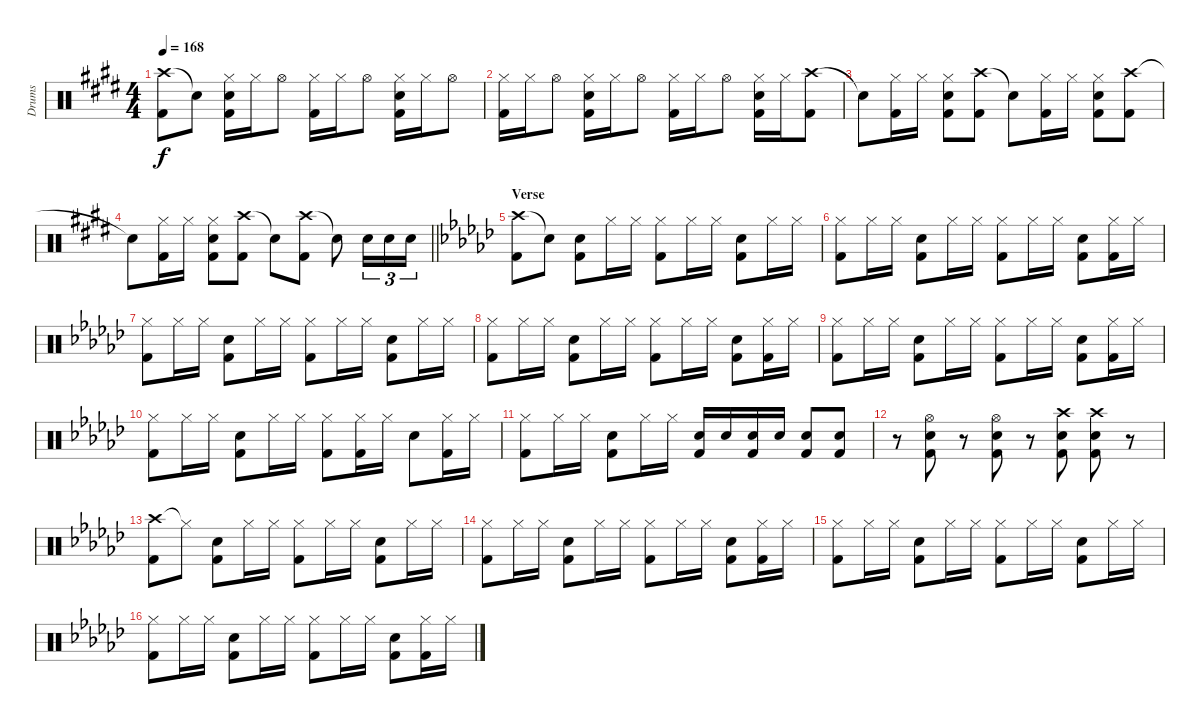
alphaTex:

\track ("Drums" "Drums") {instrument percussion}
\staff {score}
\articulation defaults
\ts (4 4)
\tempo 168
\clef neutral
\ks e
("Crash high (hit)" "Kick (hit) 2").8{dy f} "Snare (hit)"{t}.8 ("Hi-Hat (closed)" "Snare (hit) 2" "Kick (hit) 2").16 "Hi-Hat (closed)".16 "Hi-Hat (open)".8 ("Hi-Hat (closed)" "Kick (hit) 2").16 "Hi-Hat (closed)".16 "Hi-Hat (open)".8 ("Hi-Hat (closed)" "Snare (hit) 2" "Kick (hit) 2").16 "Hi-Hat (closed)".16 "Hi-Hat (open)".8 |
("Hi-Hat (closed)" "Kick (hit) 2").16 "Hi-Hat (closed)".16 "Hi-Hat (open)".8 ("Hi-Hat (closed)" "Snare (hit) 2" "Kick (hit) 2").16 "Hi-Hat (closed)".16 "Hi-Hat (open)".8 ("Hi-Hat (closed)" "Kick (hit) 2").16 "Hi-Hat (closed)".16 "Hi-Hat (open)".8 ("Hi-Hat (closed)" "Snare (hit) 2" "Kick (hit) 2").16 "Hi-Hat (closed)".16 ("Crash high (hit)" "Kick (hit) 2").8 |
"Snare (hit)"{t}.8 ("Hi-Hat (closed)" "Kick (hit) 2").16 "Hi-Hat (closed)".16 ("Hi-Hat (closed)" "Snare (hit) 2" "Kick (hit) 2").8 ("Crash high (hit)" "Kick (hit) 2").8 "Snare (hit)"{t}.8 ("Hi-Hat (closed)" "Kick (hit) 2").16 "Hi-Hat (closed)".16 ("Hi-Hat (closed)" "Snare (hit) 2" "Kick (hit) 2").8 ("Crash high (hit)" "Kick (hit) 2").8 |
\barLineRight lightlight "Snare (hit)"{t}.8
("Hi-Hat (closed)" "Kick (hit) 2").16 "Hi-Hat (closed)".16 ("Hi-Hat (closed)" "Snare (hit) 2" "Kick (hit) 2").8 ("Crash high (hit)" "Kick (hit) 2").8 "Snare (hit)"{t}.8 ("Crash high (hit)" "Kick (hit) 2").8 "Snare (hit)"{t}.8 "Snare (hit) 2".16{tu (3 2)} "Snare (hit) 2".16{tu (3 2)} "Snare (hit) 2".16{tu (3 2)} |
\section ("" "Verse")
\ks gb
("Crash high (hit)" "Kick (hit) 2").8 "Snare (hit)"{t}.8 ("Snare (hit) 2" "Kick (hit) 2").8 "Hi-Hat (closed)".16 "Hi-Hat (closed)".16 ("Hi-Hat (closed)" "Kick (hit) 2").8 "Hi-Hat (closed)".16 "Hi-Hat (closed)".16 ("Snare (hit) 2" "Kick (hit) 2").8 "Hi-Hat (closed)".16 "Hi-Hat (closed)".16 |
("Hi-Hat (closed)" "Kick (hit) 2").8 "Hi-Hat (closed)".16 "Hi-Hat (closed)".16 ("Snare (hit) 2" "Kick (hit) 2").8 "Hi-Hat (closed)".16 "Hi-Hat (closed)".16 ("Hi-Hat (closed)" "Kick (hit) 2").8 "Hi-Hat (closed)".16 "Hi-Hat (closed)".16 ("Snare (hit) 2" "Kick (hit) 2").8 ("Hi-Hat (closed)" "Kick (hit) 2").16 "Hi-Hat (closed)".16 |
("Hi-Hat (closed)" "Kick (hit) 2").8 "Hi-Hat (closed)".16 "Hi-Hat (closed)".16 ("Snare (hit) 2" "Kick (hit) 2").8 "Hi-Hat (closed)".16 "Hi-Hat (closed)".16 ("Hi-Hat (closed)" "Kick (hit) 2").8 "Hi-Hat (closed)".16 "Hi-Hat (closed)".16 ("Snare (hit) 2" "Kick (hit) 2").8 "Hi-Hat (closed)".16 "Hi-Hat (closed)".16 |
("Hi-Hat (closed)" "Kick (hit) 2").8 "Hi-Hat (closed)".16 "Hi-Hat (closed)".16 ("Snare (hit) 2" "Kick (hit) 2").8 "Hi-Hat (closed)".16 "Hi-Hat (closed)".16 ("Hi-Hat (closed)" "Kick (hit) 2").8 "Hi-Hat (closed)".16 "Hi-Hat (closed)".16 ("Snare (hit) 2" "Kick (hit) 2").8 ("Hi-Hat (closed)" "Kick (hit) 2").16 "Hi-Hat (closed)".16 |
("Hi-Hat (closed)" "Kick (hit) 2").8 "Hi-Hat (closed)".16 "Hi-Hat (closed)".16 ("Snare (hit) 2" "Kick (hit) 2").8 "Hi-Hat (closed)".16 "Hi-Hat (closed)".16 ("Hi-Hat (closed)" "Kick (hit) 2").8 "Hi-Hat (closed)".16 "Hi-Hat (closed)".16 ("Snare (hit) 2" "Kick (hit) 2").8 ("Hi-Hat (closed)" "Kick (hit) 2").16 "Hi-Hat (closed)".16 |
("Hi-Hat (closed)" "Kick (hit) 2").8 "Hi-Hat (closed)".16 "Hi-Hat (closed)".16 ("Snare (hit) 2" "Kick (hit) 2").8 "Hi-Hat (closed)".16 "Hi-Hat (closed)".16 ("Hi-Hat (closed)" "Kick (hit) 2").8 ("Hi-Hat (closed)" "Kick (hit) 2").16 "Hi-Hat (closed)".16 "Snare (hit) 2".8 ("Hi-Hat (closed)" "Kick (hit) 2").16 "Hi-Hat (closed)".16 |
("Hi-Hat (closed)" "Kick (hit) 2").8 "Hi-Hat (closed)".16 "Hi-Hat (closed)".16 ("Snare (hit) 2" "Kick (hit) 2").8 "Hi-Hat (closed)".16 "Hi-Hat (closed)".16 ("Snare (hit) 2" "Kick (hit) 2").16 "Snare (hit) 2".16 ("Snare (hit) 2" "Kick (hit) 2").16 "Snare (hit) 2".16 ("Snare (hit) 2" "Kick (hit) 2").8 ("Snare (hit) 2" "Kick (hit) 2").8 |
r.8 ("Hi-Hat (open)" "Snare (hit) 2" "Kick (hit) 2").8 r.8 ("Hi-Hat (open)" "Snare (hit) 2" "Kick (hit) 2").8 r.8 ("Crash high (hit)" "Snare (hit) 2" "Kick (hit) 2").8 ("Crash high (hit)" "Snare (hit) 2" "Kick (hit) 2").8 r.8 |
("Crash high (hit)" "Kick (hit) 2").8 "Hi-Hat (closed)"{t}.8 ("Snare (hit) 2" "Kick (hit) 2").8 "Hi-Hat (closed)".16 "Hi-Hat (closed)".16 ("Hi-Hat (closed)" "Kick (hit) 2").8 "Hi-Hat (closed)".16 "Hi-Hat (closed)".16 ("Snare (hit) 2" "Kick (hit) 2").8 "Hi-Hat (closed)".16 "Hi-Hat (closed)".16 |
("Hi-Hat (closed)" "Kick (hit) 2").8 "Hi-Hat (closed)".16 "Hi-Hat (closed)".16 ("Snare (hit) 2" "Kick (hit) 2").8 "Hi-Hat (closed)".16 "Hi-Hat (closed)".16 ("Hi-Hat (closed)" "Kick (hit) 2").8 "Hi-Hat (closed)".16 "Hi-Hat (closed)".16 ("Snare (hit) 2" "Kick (hit) 2").8 ("Hi-Hat (closed)" "Kick (hit) 2").16 "Hi-Hat (closed)".16 |
("Hi-Hat (closed)" "Kick (hit) 2").8 "Hi-Hat (closed)".16 "Hi-Hat (closed)".16 ("Snare (hit) 2" "Kick (hit) 2").8 "Hi-Hat (closed)".16 "Hi-Hat (closed)".16 ("Hi-Hat (closed)" "Kick (hit) 2").8 "Hi-Hat (closed)".16 "Hi-Hat (closed)".16 ("Snare (hit) 2" "Kick (hit) 2").8 "Hi-Hat (closed)".16 "Hi-Hat (closed)".16 |
("Hi-Hat (closed)" "Kick (hit) 2").8 "Hi-Hat (closed)".16 "Hi-Hat (closed)".16 ("Snare (hit) 2" "Kick (hit) 2").8 "Hi-Hat (closed)".16 "Hi-Hat (closed)".16 ("Hi-Hat (closed)" "Kick (hit) 2").8 "Hi-Hat (closed)".16 "Hi-Hat (closed)".16 ("Snare (hit) 2" "Kick (hit) 2").8 ("Hi-Hat (closed)" "Kick (hit) 2").16 "Hi-Hat (closed)".16
